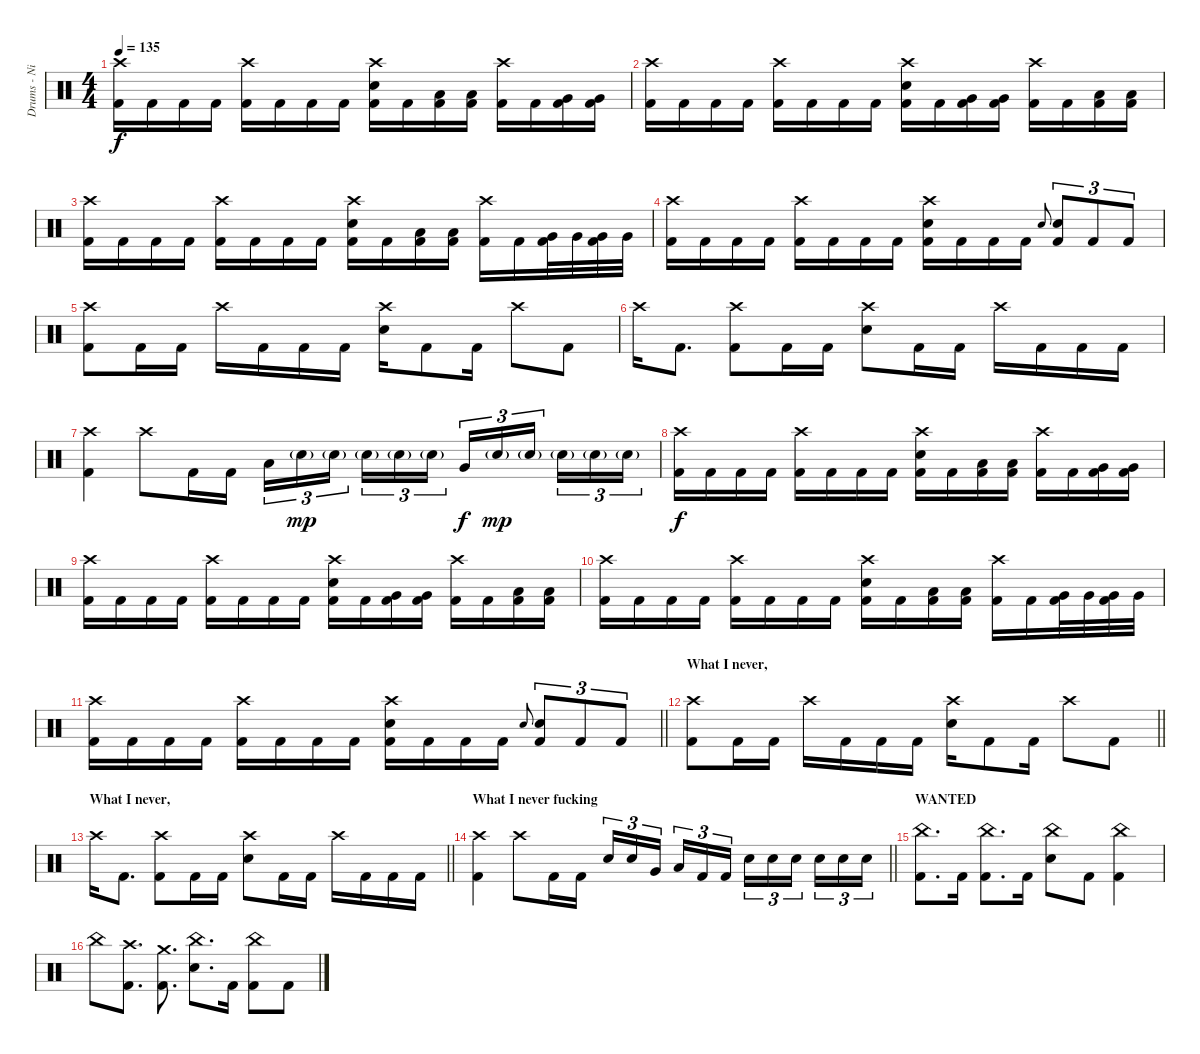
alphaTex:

\track ("Drums - Nic" "Drums - Ni") {instrument percussion}
\staff {score}
\articulation defaults
\ts (4 4)
\tempo 135
\clef neutral
\ks c
("Crash high (hit)" "Kick (hit) 2").16{dy f} "Kick (hit) 2".16 "Kick (hit) 2".16 "Kick (hit) 2".16 ("Crash high (hit)" "Kick (hit) 2").16 "Kick (hit) 2".16 "Kick (hit) 2".16 "Kick (hit) 2".16 ("Crash high (hit)" "Electric Snare (hit)" "Kick (hit) 2").16 "Kick (hit) 2".16 ("Low Tom (hit)" "Kick (hit) 2").16 ("Low Tom (hit)" "Kick (hit) 2").16 ("Crash high (hit)" "Kick (hit) 2").16 "Kick (hit) 2".16 ("Very Low Tom (hit)" "Kick (hit) 2").16 ("Very Low Tom (hit)" "Kick (hit) 2").16 |
("Crash high (hit)" "Kick (hit) 2").16 "Kick (hit) 2".16 "Kick (hit) 2".16 "Kick (hit) 2".16 ("Crash high (hit)" "Kick (hit) 2").16 "Kick (hit) 2".16 "Kick (hit) 2".16 "Kick (hit) 2".16 ("Crash high (hit)" "Electric Snare (hit)" "Kick (hit) 2").16 "Kick (hit) 2".16 ("Very Low Tom (hit)" "Kick (hit) 2").16 ("Very Low Tom (hit)" "Kick (hit) 2").16 ("Crash high (hit)" "Kick (hit) 2").16 "Kick (hit) 2".16 ("Low Floor Tom (hit)" "Kick (hit) 2").16 ("Low Floor Tom (hit)" "Kick (hit) 2").16 |
("Crash high (hit)" "Kick (hit) 2").16 "Kick (hit) 2".16 "Kick (hit) 2".16 "Kick (hit) 2".16 ("Crash high (hit)" "Kick (hit) 2").16 "Kick (hit) 2".16 "Kick (hit) 2".16 "Kick (hit) 2".16 ("Crash high (hit)" "Electric Snare (hit)" "Kick (hit) 2").16 "Kick (hit) 2".16 ("Low Tom (hit)" "Kick (hit) 2").16 ("Low Tom (hit)" "Kick (hit) 2").16 ("Crash high (hit)" "Kick (hit) 2").16 "Kick (hit) 2".16 ("Very Low Tom (hit)" "Kick (hit) 2").32 "Very Low Tom (hit)".32 ("Very Low Tom (hit)" "Kick (hit) 2").32 "Very Low Tom (hit)".32 |
("Crash high (hit)" "Kick (hit) 2").16 "Kick (hit) 2".16 "Kick (hit) 2".16 "Kick (hit) 2".16 ("Crash high (hit)" "Kick (hit) 2").16 "Kick (hit) 2".16 "Kick (hit) 2".16 "Kick (hit) 2".16 ("Crash high (hit)" "Electric Snare (hit)" "Kick (hit) 2").16 "Kick (hit) 2".16 "Kick (hit) 2".16 "Kick (hit) 2".16 "Electric Snare (hit)".8{gr onbeat} ("Electric Snare (hit)" "Kick (hit) 2").8{tu (3 2)} "Kick (hit) 2".8{tu (3 2)} "Kick (hit) 2".8{tu (3 2)} |
("Crash high (hit)" "Kick (hit) 2").8 "Kick (hit) 2".16 "Kick (hit) 2".16 "Crash high (hit)".16 "Kick (hit) 2".16 "Kick (hit) 2".16 "Kick (hit) 2".16 ("Crash high (hit)" "Electric Snare (hit)").16 "Kick (hit) 2".8 "Kick (hit) 2".16 "Crash high (hit)".8 "Kick (hit) 2".8 |
"Crash high (hit)".16 "Kick (hit) 2".8{d} ("Crash high (hit)" "Kick (hit) 2").8 "Kick (hit) 2".16 "Kick (hit) 2".16 ("Crash high (hit)" "Electric Snare (hit)").8 "Kick (hit) 2".16 "Kick (hit) 2".16 "Crash high (hit)".16 "Kick (hit) 2".16 "Kick (hit) 2".16 "Kick (hit) 2".16 |
("Crash high (hit)" "Kick (hit) 2").4 "Crash high (hit)".8 "Kick (hit) 2".16 "Kick (hit) 2".16 "Low Tom (hit)".16{tu (3 2)} "Electric Snare (hit)"{g}.16{tu (3 2) dy mp} "Electric Snare (hit)"{g}.16{tu (3 2) beam splitsecondary} "Electric Snare (hit)"{g}.16{tu (3 2)} "Electric Snare (hit)"{g}.16{tu (3 2)} "Electric Snare (hit)"{g}.16{tu (3 2)} "Very Low Tom (hit)".16{tu (3 2) dy f} "Electric Snare (hit)"{g}.16{tu (3 2) dy mp} "Electric Snare (hit)"{g}.16{tu (3 2) beam splitsecondary} "Electric Snare (hit)"{g}.16{tu (3 2)} "Electric Snare (hit)"{g}.16{tu (3 2)} "Electric Snare (hit)"{g}.16{tu (3 2)} |
("Crash high (hit)" "Kick (hit) 2").16{dy f} "Kick (hit) 2".16 "Kick (hit) 2".16 "Kick (hit) 2".16 ("Crash high (hit)" "Kick (hit) 2").16 "Kick (hit) 2".16 "Kick (hit) 2".16 "Kick (hit) 2".16 ("Crash high (hit)" "Electric Snare (hit)" "Kick (hit) 2").16 "Kick (hit) 2".16 ("Low Tom (hit)" "Kick (hit) 2").16 ("Low Tom (hit)" "Kick (hit) 2").16 ("Crash high (hit)" "Kick (hit) 2").16 "Kick (hit) 2".16 ("Very Low Tom (hit)" "Kick (hit) 2").16 ("Very Low Tom (hit)" "Kick (hit) 2").16 |
("Crash high (hit)" "Kick (hit) 2").16 "Kick (hit) 2".16 "Kick (hit) 2".16 "Kick (hit) 2".16 ("Crash high (hit)" "Kick (hit) 2").16 "Kick (hit) 2".16 "Kick (hit) 2".16 "Kick (hit) 2".16 ("Crash high (hit)" "Electric Snare (hit)" "Kick (hit) 2").16 "Kick (hit) 2".16 ("Very Low Tom (hit)" "Kick (hit) 2").16 ("Very Low Tom (hit)" "Kick (hit) 2").16 ("Crash high (hit)" "Kick (hit) 2").16 "Kick (hit) 2".16 ("Low Floor Tom (hit)" "Kick (hit) 2").16 ("Low Floor Tom (hit)" "Kick (hit) 2").16 |
("Crash high (hit)" "Kick (hit) 2").16 "Kick (hit) 2".16 "Kick (hit) 2".16 "Kick (hit) 2".16 ("Crash high (hit)" "Kick (hit) 2").16 "Kick (hit) 2".16 "Kick (hit) 2".16 "Kick (hit) 2".16 ("Crash high (hit)" "Electric Snare (hit)" "Kick (hit) 2").16 "Kick (hit) 2".16 ("Low Tom (hit)" "Kick (hit) 2").16 ("Low Tom (hit)" "Kick (hit) 2").16 ("Crash high (hit)" "Kick (hit) 2").16 "Kick (hit) 2".16 ("Very Low Tom (hit)" "Kick (hit) 2").32 "Very Low Tom (hit)".32 ("Very Low Tom (hit)" "Kick (hit) 2").32 "Very Low Tom (hit)".32 |
\barLineRight lightlight
("Crash high (hit)" "Kick (hit) 2").16 "Kick (hit) 2".16 "Kick (hit) 2".16 "Kick (hit) 2".16 ("Crash high (hit)" "Kick (hit) 2").16 "Kick (hit) 2".16 "Kick (hit) 2".16 "Kick (hit) 2".16 ("Crash high (hit)" "Electric Snare (hit)" "Kick (hit) 2").16 "Kick (hit) 2".16 "Kick (hit) 2".16 "Kick (hit) 2".16 "Electric Snare (hit)".8{gr onbeat} ("Electric Snare (hit)" "Kick (hit) 2").8{tu (3 2)} "Kick (hit) 2".8{tu (3 2)} "Kick (hit) 2".8{tu (3 2)} |
\section ("" "What I never,")
\barLineRight lightlight
("Crash high (hit)" "Kick (hit) 2").8 "Kick (hit) 2".16 "Kick (hit) 2".16 "Crash high (hit)".16 "Kick (hit) 2".16 "Kick (hit) 2".16 "Kick (hit) 2".16 ("Crash high (hit)" "Electric Snare (hit)").16 "Kick (hit) 2".8 "Kick (hit) 2".16 "Crash high (hit)".8 "Kick (hit) 2".8 |
\section ("" "What I never,")
\barLineRight lightlight "Crash high (hit)".16 "Kick (hit) 2".8{d}
("Crash high (hit)" "Kick (hit) 2").8 "Kick (hit) 2".16 "Kick (hit) 2".16 ("Crash high (hit)" "Electric Snare (hit)").8 "Kick (hit) 2".16 "Kick (hit) 2".16 "Crash high (hit)".16 "Kick (hit) 2".16 "Kick (hit) 2".16 "Kick (hit) 2".16 |
\section ("" "What I never fucking")
\barLineRight lightlight
("Crash high (hit)" "Kick (hit) 2").4 "Crash high (hit)".8 "Kick (hit) 2".16 "Kick (hit) 2".16 "Electric Snare (hit)".16{tu (3 2)} "Electric Snare (hit)".16{tu (3 2)} "Very Low Tom (hit)".16{tu (3 2) beam splitsecondary} "Low Tom (hit)".16{tu (3 2)} "Kick (hit) 2".16{tu (3 2)} "Kick (hit) 2".16{tu (3 2)} "Electric Snare (hit)".16{tu (3 2)} "Electric Snare (hit)".16{tu (3 2)} "Electric Snare (hit)".16{tu (3 2) beam splitsecondary} "Electric Snare (hit)".16{tu (3 2)} "Electric Snare (hit)".16{tu (3 2)} "Electric Snare (hit)".16{tu (3 2)} |
\section ("" "WANTED")
("China (hit)" "Kick (hit) 2").8{d} "Kick (hit) 2".16 ("China (hit)" "Kick (hit) 2").8{d} "Kick (hit) 2".16 ("China (hit)" "Electric Snare (hit)").8 "Kick (hit) 2".8 ("China (hit)" "Kick (hit) 2").4 |
"China (hit)".8 ("Crash high (hit)" "Kick (hit) 2").8{d} ("Crash medium (hit)" "Kick (hit) 2").8{d} ("China (hit)" "Electric Snare (hit)").8{d} "Kick (hit) 2".16 ("China (hit)" "Kick (hit) 2").8 "Kick (hit) 2".8
